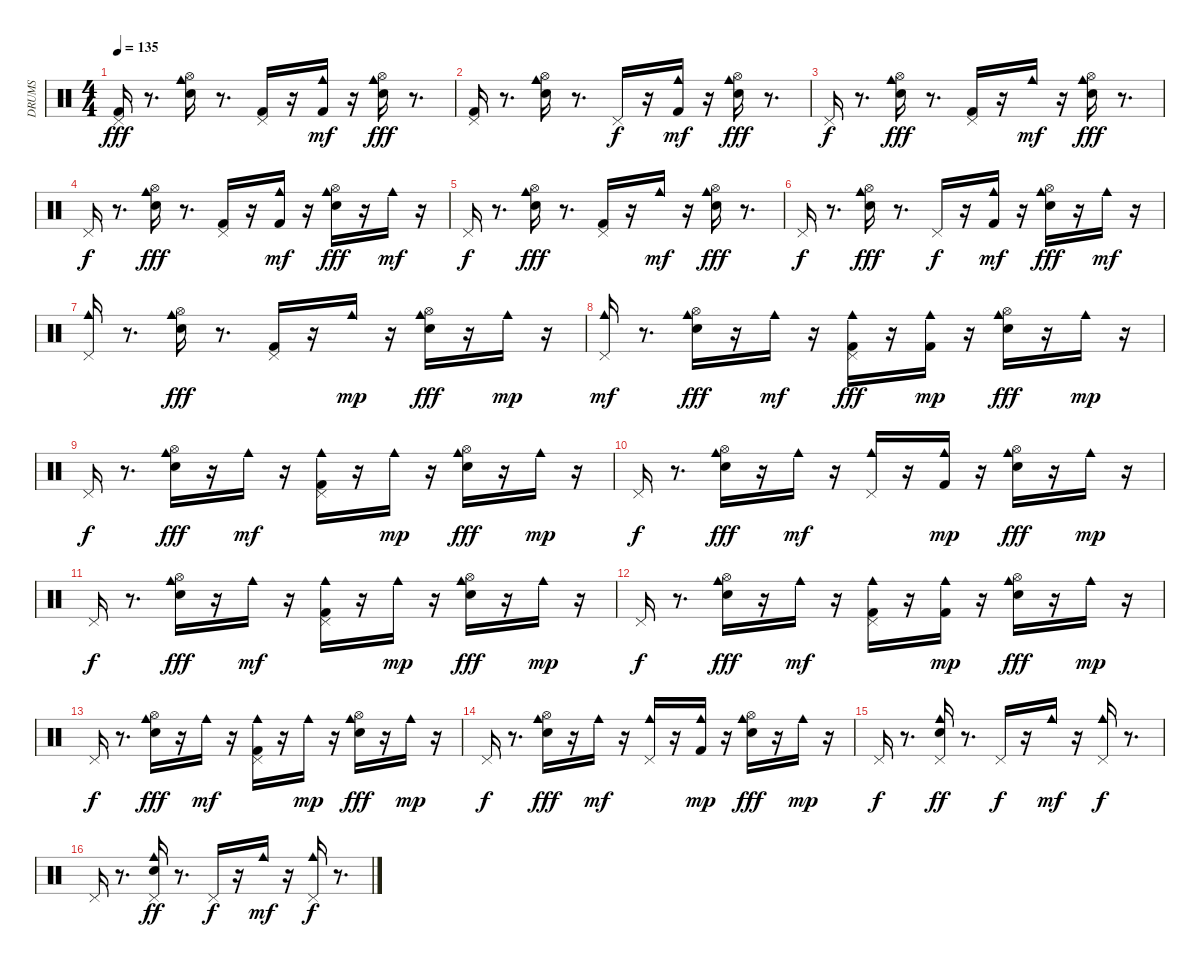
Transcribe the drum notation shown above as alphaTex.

\track ("DRUMS" "DRUMS") {instrument percussion}
\staff {score}
\articulation defaults
\ts (4 4)
\tempo 135
\clef neutral
\ks c
("Kick (hit) 2" "Pedal Hi-Hat (hit)").16{dy fff} r.8{d} ("Snare (hit) 2" "Hi-Hat (open)" "Cowbell medium (hit)").16 r.8{d} ("Kick (hit) 2" "Pedal Hi-Hat (hit)").16 r.16 ("Kick (hit) 2" "Cowbell medium (hit)").16{dy mf} r.16 ("Snare (hit) 2" "Hi-Hat (open)" "Cowbell medium (hit)").16{dy fff} r.8{d} |
("Kick (hit) 2" "Pedal Hi-Hat (hit)").16 r.8{d} ("Snare (hit) 2" "Hi-Hat (open)" "Cowbell medium (hit)").16 r.8{d} "Pedal Hi-Hat (hit)".16{dy f} r.16 ("Kick (hit) 2" "Cowbell medium (hit)").16{dy mf} r.16 ("Snare (hit) 2" "Hi-Hat (open)" "Cowbell medium (hit)").16{dy fff} r.8{d} |
"Pedal Hi-Hat (hit)".16{dy f} r.8{d} ("Snare (hit) 2" "Hi-Hat (open)" "Cowbell medium (hit)").16{dy fff} r.8{d} ("Kick (hit) 2" "Pedal Hi-Hat (hit)").16 r.16 "Cowbell medium (hit)".16{dy mf} r.16 ("Snare (hit) 2" "Hi-Hat (open)" "Cowbell medium (hit)").16{dy fff} r.8{d} |
"Pedal Hi-Hat (hit)".16{dy f} r.8{d} ("Snare (hit) 2" "Hi-Hat (open)" "Cowbell medium (hit)").16{dy fff} r.8{d} ("Kick (hit) 2" "Pedal Hi-Hat (hit)").16 r.16 ("Kick (hit) 2" "Cowbell medium (hit)").16{dy mf} r.16 ("Snare (hit) 2" "Hi-Hat (open)" "Cowbell medium (hit)").16{dy fff} r.16 "Cowbell medium (hit)".16{dy mf} r.16 |
"Pedal Hi-Hat (hit)".16{dy f} r.8{d} ("Snare (hit) 2" "Hi-Hat (open)" "Cowbell medium (hit)").16{dy fff} r.8{d} ("Kick (hit) 2" "Pedal Hi-Hat (hit)").16 r.16 "Cowbell medium (hit)".16{dy mf} r.16 ("Snare (hit) 2" "Hi-Hat (open)" "Cowbell medium (hit)").16{dy fff} r.8{d} |
"Pedal Hi-Hat (hit)".16{dy f} r.8{d} ("Snare (hit) 2" "Hi-Hat (open)" "Cowbell medium (hit)").16{dy fff} r.8{d} "Pedal Hi-Hat (hit)".16{dy f} r.16 ("Kick (hit) 2" "Cowbell medium (hit)").16{dy mf} r.16 ("Snare (hit) 2" "Hi-Hat (open)" "Cowbell medium (hit)").16{dy fff} r.16 "Cowbell medium (hit)".16{dy mf} r.16 |
("Pedal Hi-Hat (hit)" "Cowbell medium (hit)").16 r.8{d} ("Snare (hit) 2" "Hi-Hat (open)" "Cowbell medium (hit)").16{dy fff} r.8{d} ("Kick (hit) 2" "Pedal Hi-Hat (hit)").16 r.16 "Cowbell medium (hit)".16{dy mp} r.16 ("Snare (hit) 2" "Hi-Hat (open)" "Cowbell medium (hit)").16{dy fff} r.16 "Cowbell medium (hit)".16{dy mp} r.16 |
("Pedal Hi-Hat (hit)" "Cowbell medium (hit)").16{dy mf} r.8{d} ("Snare (hit) 2" "Hi-Hat (open)" "Cowbell medium (hit)").16{dy fff} r.16 "Cowbell medium (hit)".16{dy mf} r.16 ("Kick (hit) 2" "Pedal Hi-Hat (hit)" "Cowbell medium (hit)").16{dy fff} r.16 ("Kick (hit) 2" "Cowbell medium (hit)").16{dy mp} r.16 ("Snare (hit) 2" "Hi-Hat (open)" "Cowbell medium (hit)").16{dy fff} r.16 "Cowbell medium (hit)".16{dy mp} r.16 |
"Pedal Hi-Hat (hit)".16{dy f} r.8{d} ("Snare (hit) 2" "Hi-Hat (open)" "Cowbell medium (hit)").16{dy fff} r.16 "Cowbell medium (hit)".16{dy mf} r.16 ("Kick (hit) 2" "Pedal Hi-Hat (hit)" "Cowbell medium (hit)").16 r.16 "Cowbell medium (hit)".16{dy mp} r.16 ("Snare (hit) 2" "Hi-Hat (open)" "Cowbell medium (hit)").16{dy fff} r.16 "Cowbell medium (hit)".16{dy mp} r.16 |
"Pedal Hi-Hat (hit)".16{dy f} r.8{d} ("Snare (hit) 2" "Hi-Hat (open)" "Cowbell medium (hit)").16{dy fff} r.16 "Cowbell medium (hit)".16{dy mf} r.16 ("Pedal Hi-Hat (hit)" "Cowbell medium (hit)").16 r.16 ("Kick (hit) 2" "Cowbell medium (hit)").16{dy mp} r.16 ("Snare (hit) 2" "Hi-Hat (open)" "Cowbell medium (hit)").16{dy fff} r.16 "Cowbell medium (hit)".16{dy mp} r.16 |
"Pedal Hi-Hat (hit)".16{dy f} r.8{d} ("Snare (hit) 2" "Hi-Hat (open)" "Cowbell medium (hit)").16{dy fff} r.16 "Cowbell medium (hit)".16{dy mf} r.16 ("Kick (hit) 2" "Pedal Hi-Hat (hit)" "Cowbell medium (hit)").16 r.16 "Cowbell medium (hit)".16{dy mp} r.16 ("Snare (hit) 2" "Hi-Hat (open)" "Cowbell medium (hit)").16{dy fff} r.16 "Cowbell medium (hit)".16{dy mp} r.16 |
"Pedal Hi-Hat (hit)".16{dy f} r.8{d} ("Snare (hit) 2" "Hi-Hat (open)" "Cowbell medium (hit)").16{dy fff} r.16 "Cowbell medium (hit)".16{dy mf} r.16 ("Kick (hit) 2" "Pedal Hi-Hat (hit)" "Cowbell medium (hit)").16 r.16 ("Kick (hit) 2" "Cowbell medium (hit)").16{dy mp} r.16 ("Snare (hit) 2" "Hi-Hat (open)" "Cowbell medium (hit)").16{dy fff} r.16 "Cowbell medium (hit)".16{dy mp} r.16 |
"Pedal Hi-Hat (hit)".16{dy f} r.8{d} ("Snare (hit) 2" "Hi-Hat (open)" "Cowbell medium (hit)").16{dy fff} r.16 "Cowbell medium (hit)".16{dy mf} r.16 ("Kick (hit) 2" "Pedal Hi-Hat (hit)" "Cowbell medium (hit)").16 r.16 "Cowbell medium (hit)".16{dy mp} r.16 ("Snare (hit) 2" "Hi-Hat (open)" "Cowbell medium (hit)").16{dy fff} r.16 "Cowbell medium (hit)".16{dy mp} r.16 |
"Pedal Hi-Hat (hit)".16{dy f} r.8{d} ("Snare (hit) 2" "Hi-Hat (open)" "Cowbell medium (hit)").16{dy fff} r.16 "Cowbell medium (hit)".16{dy mf} r.16 ("Pedal Hi-Hat (hit)" "Cowbell medium (hit)").16 r.16 ("Kick (hit) 2" "Cowbell medium (hit)").16{dy mp} r.16 ("Snare (hit) 2" "Hi-Hat (open)" "Cowbell medium (hit)").16{dy fff} r.16 "Cowbell medium (hit)".16{dy mp} r.16 |
"Pedal Hi-Hat (hit)".16{dy f} r.8{d} ("Pedal Hi-Hat (hit)" "Cowbell medium (hit)" "Hand Clap (hit)").16{dy ff} r.8{d} "Pedal Hi-Hat (hit)".16{dy f} r.16 "Cowbell medium (hit)".16{dy mf} r.16 ("Pedal Hi-Hat (hit)" "Cowbell medium (hit)").16{dy f} r.8{d} |
"Pedal Hi-Hat (hit)".16 r.8{d} ("Pedal Hi-Hat (hit)" "Cowbell medium (hit)" "Hand Clap (hit)").16{dy ff} r.8{d} "Pedal Hi-Hat (hit)".16{dy f} r.16 "Cowbell medium (hit)".16{dy mf} r.16 ("Pedal Hi-Hat (hit)" "Cowbell medium (hit)").16{dy f} r.8{d}
